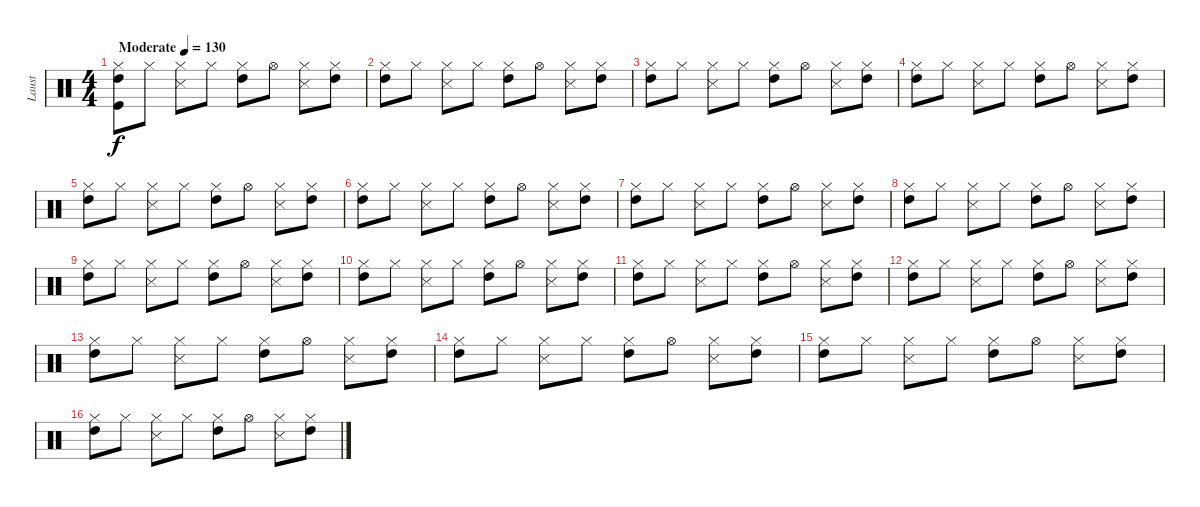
\track ("Laust" "Laust") {instrument percussion}
\staff {score}
\articulation defaults
\ts (4 4)
\tempo (130 "Moderate")
\clef neutral
\ks c
("Hi-Hat (closed)" "Kick (hit)" "High Tom (hit)").8{dy f} "Hi-Hat (closed)".8 ("Hi-Hat (closed)" "Snare (side stick) 3").8 "Hi-Hat (closed)".8 ("Hi-Hat (closed)" "High Tom (hit)").8 "Hi-Hat (open)".8 ("Hi-Hat (closed)" "Snare (side stick) 3").8 ("Hi-Hat (closed)" "High Tom (hit)").8 |
("Hi-Hat (closed)" "High Tom (hit)").8 "Hi-Hat (closed)".8 ("Hi-Hat (closed)" "Snare (side stick) 3").8 "Hi-Hat (closed)".8 ("Hi-Hat (closed)" "High Tom (hit)").8 "Hi-Hat (open)".8 ("Hi-Hat (closed)" "Snare (side stick) 3").8 ("Hi-Hat (closed)" "High Tom (hit)").8 |
("Hi-Hat (closed)" "High Tom (hit)").8 "Hi-Hat (closed)".8 ("Hi-Hat (closed)" "Snare (side stick) 3").8 "Hi-Hat (closed)".8 ("Hi-Hat (closed)" "High Tom (hit)").8 "Hi-Hat (open)".8 ("Hi-Hat (closed)" "Snare (side stick) 3").8 ("Hi-Hat (closed)" "High Tom (hit)").8 |
("Hi-Hat (closed)" "High Tom (hit)").8 "Hi-Hat (closed)".8 ("Hi-Hat (closed)" "Snare (side stick) 3").8 "Hi-Hat (closed)".8 ("Hi-Hat (closed)" "High Tom (hit)").8 "Hi-Hat (open)".8 ("Hi-Hat (closed)" "Snare (side stick) 3").8 ("Hi-Hat (closed)" "High Tom (hit)").8 |
("Hi-Hat (closed)" "High Tom (hit)").8 "Hi-Hat (closed)".8 ("Hi-Hat (closed)" "Snare (side stick) 3").8 "Hi-Hat (closed)".8 ("Hi-Hat (closed)" "High Tom (hit)").8 "Hi-Hat (open)".8 ("Hi-Hat (closed)" "Snare (side stick) 3").8 ("Hi-Hat (closed)" "High Tom (hit)").8 |
("Hi-Hat (closed)" "High Tom (hit)").8 "Hi-Hat (closed)".8 ("Hi-Hat (closed)" "Snare (side stick) 3").8 "Hi-Hat (closed)".8 ("Hi-Hat (closed)" "High Tom (hit)").8 "Hi-Hat (open)".8 ("Hi-Hat (closed)" "Snare (side stick) 3").8 ("Hi-Hat (closed)" "High Tom (hit)").8 |
("Hi-Hat (closed)" "High Tom (hit)").8 "Hi-Hat (closed)".8 ("Hi-Hat (closed)" "Snare (side stick) 3").8 "Hi-Hat (closed)".8 ("Hi-Hat (closed)" "High Tom (hit)").8 "Hi-Hat (open)".8 ("Hi-Hat (closed)" "Snare (side stick) 3").8 ("Hi-Hat (closed)" "High Tom (hit)").8 |
("Hi-Hat (closed)" "High Tom (hit)").8 "Hi-Hat (closed)".8 ("Hi-Hat (closed)" "Snare (side stick) 3").8 "Hi-Hat (closed)".8 ("Hi-Hat (closed)" "High Tom (hit)").8 "Hi-Hat (open)".8 ("Hi-Hat (closed)" "Snare (side stick) 3").8 ("Hi-Hat (closed)" "High Tom (hit)").8 |
("Hi-Hat (closed)" "High Tom (hit)").8 "Hi-Hat (closed)".8 ("Hi-Hat (closed)" "Snare (side stick) 3").8 "Hi-Hat (closed)".8 ("Hi-Hat (closed)" "High Tom (hit)").8 "Hi-Hat (open)".8 ("Hi-Hat (closed)" "Snare (side stick) 3").8 ("Hi-Hat (closed)" "High Tom (hit)").8 |
("Hi-Hat (closed)" "High Tom (hit)").8 "Hi-Hat (closed)".8 ("Hi-Hat (closed)" "Snare (side stick) 3").8 "Hi-Hat (closed)".8 ("Hi-Hat (closed)" "High Tom (hit)").8 "Hi-Hat (open)".8 ("Hi-Hat (closed)" "Snare (side stick) 3").8 ("Hi-Hat (closed)" "High Tom (hit)").8 |
("Hi-Hat (closed)" "High Tom (hit)").8 "Hi-Hat (closed)".8 ("Hi-Hat (closed)" "Snare (side stick) 3").8 "Hi-Hat (closed)".8 ("Hi-Hat (closed)" "High Tom (hit)").8 "Hi-Hat (open)".8 ("Hi-Hat (closed)" "Snare (side stick) 3").8 ("Hi-Hat (closed)" "High Tom (hit)").8 |
("Hi-Hat (closed)" "High Tom (hit)").8 "Hi-Hat (closed)".8 ("Hi-Hat (closed)" "Snare (side stick) 3").8 "Hi-Hat (closed)".8 ("Hi-Hat (closed)" "High Tom (hit)").8 "Hi-Hat (open)".8 ("Hi-Hat (closed)" "Snare (side stick) 3").8 ("Hi-Hat (closed)" "High Tom (hit)").8 |
("Hi-Hat (closed)" "High Tom (hit)").8 "Hi-Hat (closed)".8 ("Hi-Hat (closed)" "Snare (side stick) 3").8 "Hi-Hat (closed)".8 ("Hi-Hat (closed)" "High Tom (hit)").8 "Hi-Hat (open)".8 ("Hi-Hat (closed)" "Snare (side stick) 3").8 ("Hi-Hat (closed)" "High Tom (hit)").8 |
("Hi-Hat (closed)" "High Tom (hit)").8 "Hi-Hat (closed)".8 ("Hi-Hat (closed)" "Snare (side stick) 3").8 "Hi-Hat (closed)".8 ("Hi-Hat (closed)" "High Tom (hit)").8 "Hi-Hat (open)".8 ("Hi-Hat (closed)" "Snare (side stick) 3").8 ("Hi-Hat (closed)" "High Tom (hit)").8 |
("Hi-Hat (closed)" "High Tom (hit)").8 "Hi-Hat (closed)".8 ("Hi-Hat (closed)" "Snare (side stick) 3").8 "Hi-Hat (closed)".8 ("Hi-Hat (closed)" "High Tom (hit)").8 "Hi-Hat (open)".8 ("Hi-Hat (closed)" "Snare (side stick) 3").8 ("Hi-Hat (closed)" "High Tom (hit)").8 |
("Hi-Hat (closed)" "High Tom (hit)").8 "Hi-Hat (closed)".8 ("Hi-Hat (closed)" "Snare (side stick) 3").8 "Hi-Hat (closed)".8 ("Hi-Hat (closed)" "High Tom (hit)").8 "Hi-Hat (open)".8 ("Hi-Hat (closed)" "Snare (side stick) 3").8 ("Hi-Hat (closed)" "High Tom (hit)").8
